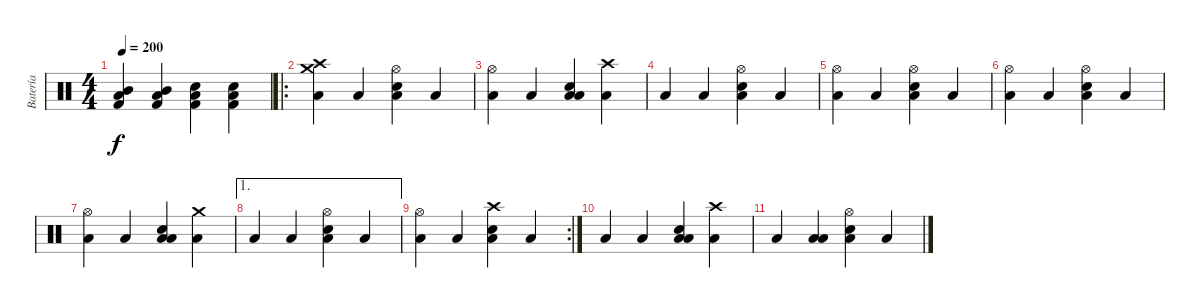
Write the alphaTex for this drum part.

\track ("Batería" "Batería") {instrument percussion}
\staff {score}
\articulation defaults
\ts (4 4)
\tempo 200
\clef neutral
\ks c
("Low Tom (hit)" "Mid Tom (hit)" "Kick (hit) 2").4{dy f} ("Low Tom (hit)" "Mid Tom (hit)" "Kick (hit) 2").4 ("Low Tom (hit)" "Electric Snare (hit)" "Kick (hit) 2").4 ("Low Tom (hit)" "Electric Snare (hit)" "Kick (hit) 2").4 |
\ro
("Crash high (hit)" "Crash medium (hit)" "Low Floor Tom (hit)").4 "Low Floor Tom (hit)".4 ("Hi-Hat (open)" "Electric Snare (hit)" "Low Floor Tom (hit)").4 "Low Floor Tom (hit)".4 |
("Hi-Hat (open)" "Low Floor Tom (hit)").4 "Low Floor Tom (hit)".4 ("Low Tom (hit)" "Electric Snare (hit)" "Low Floor Tom (hit)").4 ("Crash high (hit)" "Low Floor Tom (hit)").4 |
"Low Floor Tom (hit)".4 "Low Floor Tom (hit)".4 ("Hi-Hat (open)" "Electric Snare (hit)" "Low Floor Tom (hit)").4 "Low Floor Tom (hit)".4 |
("Hi-Hat (open)" "Low Floor Tom (hit)").4 "Low Floor Tom (hit)".4 ("Hi-Hat (open)" "Electric Snare (hit)" "Low Floor Tom (hit)").4 "Low Floor Tom (hit)".4 |
("Hi-Hat (open)" "Low Floor Tom (hit)").4 "Low Floor Tom (hit)".4 ("Hi-Hat (open)" "Electric Snare (hit)" "Low Floor Tom (hit)").4 "Low Floor Tom (hit)".4 |
("Hi-Hat (open)" "Low Floor Tom (hit)").4 "Low Floor Tom (hit)".4 ("Low Tom (hit)" "Electric Snare (hit)" "Low Floor Tom (hit)").4 ("Crash medium (hit)" "Low Floor Tom (hit)").4 |
\ae 1 "Low Floor Tom (hit)".4 "Low Floor Tom (hit)".4
("Hi-Hat (open)" "Electric Snare (hit)" "Low Floor Tom (hit)").4 "Low Floor Tom (hit)".4 |
\rc 2
("Hi-Hat (open)" "Low Floor Tom (hit)").4 "Low Floor Tom (hit)".4 ("Crash high (hit)" "Electric Snare (hit)" "Low Floor Tom (hit)").4 "Low Floor Tom (hit)".4 |
"Low Floor Tom (hit)".4 "Low Floor Tom (hit)".4 ("Low Tom (hit)" "Electric Snare (hit)" "Low Floor Tom (hit)").4 ("Crash high (hit)" "Low Floor Tom (hit)").4 |
"Low Floor Tom (hit)".4 ("Low Tom (hit)" "Low Floor Tom (hit)").4 ("Hi-Hat (open)" "Electric Snare (hit)" "Low Floor Tom (hit)").4 "Low Floor Tom (hit)".4
